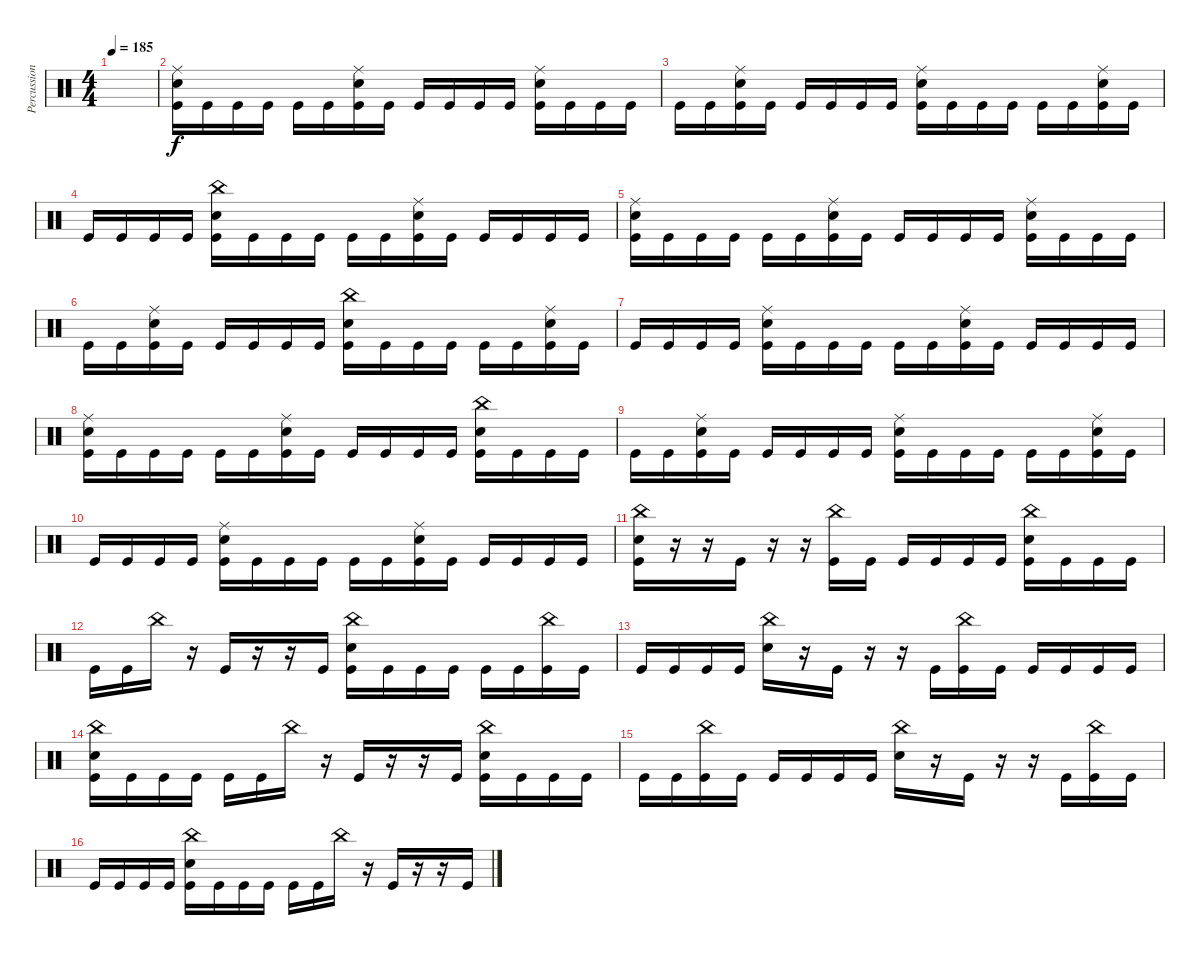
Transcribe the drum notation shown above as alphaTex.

\track ("Percussion" "Percussion") {instrument percussion}
\staff {score}
\articulation defaults
\ts (4 4)
\tempo 185
\clef neutral
\ks c
|
("Ride (middle)" "Snare (hit) 2" "Kick (hit)").16 "Kick (hit)".16 "Kick (hit)".16 "Kick (hit)".16 "Kick (hit)".16 "Kick (hit)".16 ("Ride (middle)" "Snare (hit) 2" "Kick (hit)").16 "Kick (hit)".16 "Kick (hit)".16 "Kick (hit)".16 "Kick (hit)".16 "Kick (hit)".16 ("Ride (middle)" "Snare (hit) 2" "Kick (hit)").16 "Kick (hit)".16 "Kick (hit)".16 "Kick (hit)".16 |
"Kick (hit)".16 "Kick (hit)".16 ("Ride (middle)" "Snare (hit) 2" "Kick (hit)").16 "Kick (hit)".16 "Kick (hit)".16 "Kick (hit)".16 "Kick (hit)".16 "Kick (hit)".16 ("Ride (middle)" "Snare (hit) 2" "Kick (hit)").16 "Kick (hit)".16 "Kick (hit)".16 "Kick (hit)".16 "Kick (hit)".16 "Kick (hit)".16 ("Ride (middle)" "Snare (hit) 2" "Kick (hit)").16 "Kick (hit)".16 |
"Kick (hit)".16 "Kick (hit)".16 "Kick (hit)".16 "Kick (hit)".16 ("China (hit)" "Snare (hit) 2" "Kick (hit)").16 "Kick (hit)".16 "Kick (hit)".16 "Kick (hit)".16 "Kick (hit)".16 "Kick (hit)".16 ("Ride (middle)" "Snare (hit) 2" "Kick (hit)").16 "Kick (hit)".16 "Kick (hit)".16 "Kick (hit)".16 "Kick (hit)".16 "Kick (hit)".16 |
("Ride (middle)" "Snare (hit) 2" "Kick (hit)").16 "Kick (hit)".16 "Kick (hit)".16 "Kick (hit)".16 "Kick (hit)".16 "Kick (hit)".16 ("Ride (middle)" "Snare (hit) 2" "Kick (hit)").16 "Kick (hit)".16 "Kick (hit)".16 "Kick (hit)".16 "Kick (hit)".16 "Kick (hit)".16 ("Ride (middle)" "Snare (hit) 2" "Kick (hit)").16 "Kick (hit)".16 "Kick (hit)".16 "Kick (hit)".16 |
"Kick (hit)".16 "Kick (hit)".16 ("Ride (middle)" "Snare (hit) 2" "Kick (hit)").16 "Kick (hit)".16 "Kick (hit)".16 "Kick (hit)".16 "Kick (hit)".16 "Kick (hit)".16 ("China (hit)" "Snare (hit) 2" "Kick (hit)").16 "Kick (hit)".16 "Kick (hit)".16 "Kick (hit)".16 "Kick (hit)".16 "Kick (hit)".16 ("Ride (middle)" "Snare (hit) 2" "Kick (hit)").16 "Kick (hit)".16 |
"Kick (hit)".16 "Kick (hit)".16 "Kick (hit)".16 "Kick (hit)".16 ("Ride (middle)" "Snare (hit) 2" "Kick (hit)").16 "Kick (hit)".16 "Kick (hit)".16 "Kick (hit)".16 "Kick (hit)".16 "Kick (hit)".16 ("Ride (middle)" "Snare (hit) 2" "Kick (hit)").16 "Kick (hit)".16 "Kick (hit)".16 "Kick (hit)".16 "Kick (hit)".16 "Kick (hit)".16 |
("Ride (middle)" "Snare (hit) 2" "Kick (hit)").16 "Kick (hit)".16 "Kick (hit)".16 "Kick (hit)".16 "Kick (hit)".16 "Kick (hit)".16 ("Ride (middle)" "Snare (hit) 2" "Kick (hit)").16 "Kick (hit)".16 "Kick (hit)".16 "Kick (hit)".16 "Kick (hit)".16 "Kick (hit)".16 ("China (hit)" "Snare (hit) 2" "Kick (hit)").16 "Kick (hit)".16 "Kick (hit)".16 "Kick (hit)".16 |
"Kick (hit)".16 "Kick (hit)".16 ("Ride (middle)" "Snare (hit) 2" "Kick (hit)").16 "Kick (hit)".16 "Kick (hit)".16 "Kick (hit)".16 "Kick (hit)".16 "Kick (hit)".16 ("Ride (middle)" "Snare (hit) 2" "Kick (hit)").16 "Kick (hit)".16 "Kick (hit)".16 "Kick (hit)".16 "Kick (hit)".16 "Kick (hit)".16 ("Ride (middle)" "Snare (hit) 2" "Kick (hit)").16 "Kick (hit)".16 |
"Kick (hit)".16 "Kick (hit)".16 "Kick (hit)".16 "Kick (hit)".16 ("Ride (middle)" "Snare (hit) 2" "Kick (hit)").16 "Kick (hit)".16 "Kick (hit)".16 "Kick (hit)".16 "Kick (hit)".16 "Kick (hit)".16 ("Ride (middle)" "Snare (hit) 2" "Kick (hit)").16 "Kick (hit)".16 "Kick (hit)".16 "Kick (hit)".16 "Kick (hit)".16 "Kick (hit)".16 |
("China (hit)" "Snare (hit) 2" "Kick (hit)").16 r.16 r.16 "Kick (hit)".16 r.16 r.16 ("China (hit)" "Kick (hit)").16 "Kick (hit)".16 "Kick (hit)".16 "Kick (hit)".16 "Kick (hit)".16 "Kick (hit)".16 ("China (hit)" "Snare (hit) 2" "Kick (hit)").16 "Kick (hit)".16 "Kick (hit)".16 "Kick (hit)".16 |
"Kick (hit)".16 "Kick (hit)".16 "China (hit)".16 r.16 "Kick (hit)".16 r.16 r.16 "Kick (hit)".16 ("China (hit)" "Snare (hit) 2" "Kick (hit)").16 "Kick (hit)".16 "Kick (hit)".16 "Kick (hit)".16 "Kick (hit)".16 "Kick (hit)".16 ("China (hit)" "Kick (hit)").16 "Kick (hit)".16 |
"Kick (hit)".16 "Kick (hit)".16 "Kick (hit)".16 "Kick (hit)".16 ("China (hit)" "Snare (hit) 2").16 r.16 "Kick (hit)".16 r.16 r.16 "Kick (hit)".16 ("China (hit)" "Kick (hit)").16 "Kick (hit)".16 "Kick (hit)".16 "Kick (hit)".16 "Kick (hit)".16 "Kick (hit)".16 |
("China (hit)" "Snare (hit) 2" "Kick (hit)").16 "Kick (hit)".16 "Kick (hit)".16 "Kick (hit)".16 "Kick (hit)".16 "Kick (hit)".16 "China (hit)".16 r.16 "Kick (hit)".16 r.16 r.16 "Kick (hit)".16 ("China (hit)" "Snare (hit) 2" "Kick (hit)").16 "Kick (hit)".16 "Kick (hit)".16 "Kick (hit)".16 |
"Kick (hit)".16 "Kick (hit)".16 ("China (hit)" "Kick (hit)").16 "Kick (hit)".16 "Kick (hit)".16 "Kick (hit)".16 "Kick (hit)".16 "Kick (hit)".16 ("China (hit)" "Snare (hit) 2").16 r.16 "Kick (hit)".16 r.16 r.16 "Kick (hit)".16 ("China (hit)" "Kick (hit)").16 "Kick (hit)".16 |
"Kick (hit)".16 "Kick (hit)".16 "Kick (hit)".16 "Kick (hit)".16 ("China (hit)" "Snare (hit) 2" "Kick (hit)").16 "Kick (hit)".16 "Kick (hit)".16 "Kick (hit)".16 "Kick (hit)".16 "Kick (hit)".16 "China (hit)".16 r.16 "Kick (hit)".16 r.16 r.16 "Kick (hit)".16
